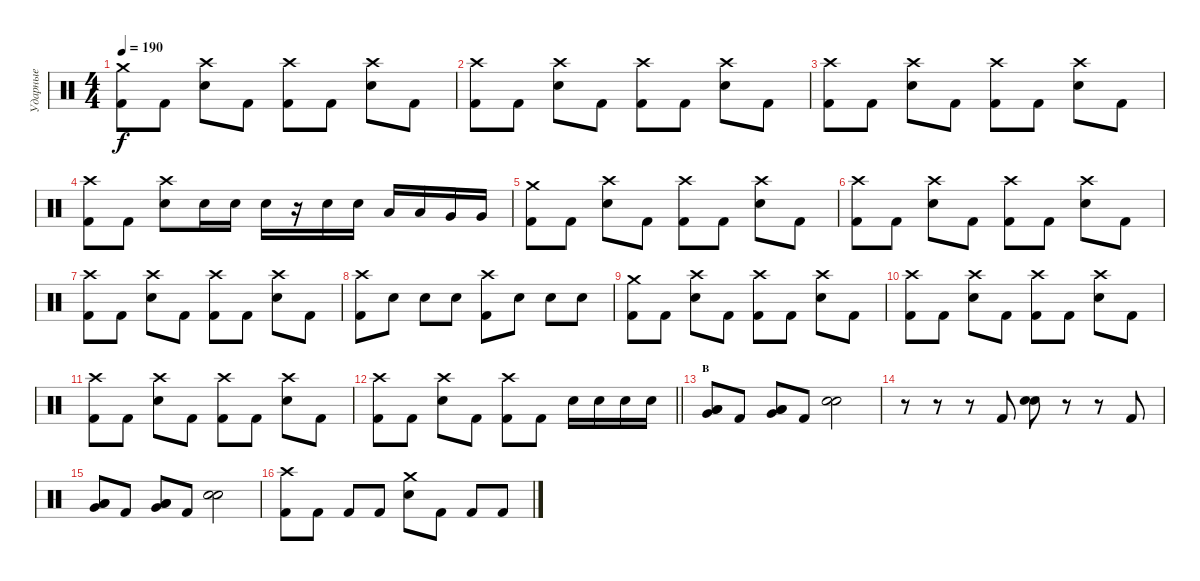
\track ("Ударные" "Ударные") {instrument percussion}
\staff {score}
\articulation defaults
\ts (4 4)
\tempo 190
\clef neutral
\ks c
("Crash medium (hit)" "Kick (hit) 2").8{dy f} "Kick (hit) 2".8 ("Crash high (hit)" "Snare (hit) 2").8 "Kick (hit) 2".8 ("Crash high (hit)" "Kick (hit) 2").8 "Kick (hit) 2".8 ("Crash high (hit)" "Snare (hit) 2").8 "Kick (hit) 2".8 |
("Crash high (hit)" "Kick (hit) 2").8 "Kick (hit) 2".8 ("Crash high (hit)" "Snare (hit) 2").8 "Kick (hit) 2".8 ("Crash high (hit)" "Kick (hit) 2").8 "Kick (hit) 2".8 ("Crash high (hit)" "Snare (hit) 2").8 "Kick (hit) 2".8 |
("Crash high (hit)" "Kick (hit) 2").8 "Kick (hit) 2".8 ("Crash high (hit)" "Snare (hit) 2").8 "Kick (hit) 2".8 ("Crash high (hit)" "Kick (hit) 2").8 "Kick (hit) 2".8 ("Crash high (hit)" "Snare (hit) 2").8 "Kick (hit) 2".8 |
("Crash high (hit)" "Kick (hit) 2").8 "Kick (hit) 2".8 ("Crash high (hit)" "Snare (hit) 2").8 "Snare (hit) 2".16 "Snare (hit) 2".16 "Snare (hit) 2".16 r.16 "Snare (hit) 2".16 "Snare (hit) 2".16 "Low Tom (hit)".16 "Low Tom (hit)".16 "Very Low Tom (hit)".16 "Very Low Tom (hit)".16 |
("Crash medium (hit)" "Kick (hit) 2").8 "Kick (hit) 2".8 ("Crash high (hit)" "Snare (hit) 2").8 "Kick (hit) 2".8 ("Crash high (hit)" "Kick (hit) 2").8 "Kick (hit) 2".8 ("Crash high (hit)" "Snare (hit) 2").8 "Kick (hit) 2".8 |
("Crash high (hit)" "Kick (hit) 2").8 "Kick (hit) 2".8 ("Crash high (hit)" "Snare (hit) 2").8 "Kick (hit) 2".8 ("Crash high (hit)" "Kick (hit) 2").8 "Kick (hit) 2".8 ("Crash high (hit)" "Snare (hit) 2").8 "Kick (hit) 2".8 |
("Crash high (hit)" "Kick (hit) 2").8 "Kick (hit) 2".8 ("Crash high (hit)" "Snare (hit) 2").8 "Kick (hit) 2".8 ("Crash high (hit)" "Kick (hit) 2").8 "Kick (hit) 2".8 ("Crash high (hit)" "Snare (hit) 2").8 "Kick (hit) 2".8 |
("Crash high (hit)" "Kick (hit) 2").8 "Snare (hit) 2".8 "Snare (hit) 2".8 "Snare (hit) 2".8 ("Crash high (hit)" "Kick (hit) 2").8 "Snare (hit) 2".8 "Snare (hit) 2".8 "Snare (hit) 2".8 |
("Crash medium (hit)" "Kick (hit) 2").8 "Kick (hit) 2".8 ("Crash high (hit)" "Snare (hit) 2").8 "Kick (hit) 2".8 ("Crash high (hit)" "Kick (hit) 2").8 "Kick (hit) 2".8 ("Crash high (hit)" "Snare (hit) 2").8 "Kick (hit) 2".8 |
("Crash high (hit)" "Kick (hit) 2").8 "Kick (hit) 2".8 ("Crash high (hit)" "Snare (hit) 2").8 "Kick (hit) 2".8 ("Crash high (hit)" "Kick (hit) 2").8 "Kick (hit) 2".8 ("Crash high (hit)" "Snare (hit) 2").8 "Kick (hit) 2".8 |
("Crash high (hit)" "Kick (hit) 2").8 "Kick (hit) 2".8 ("Crash high (hit)" "Snare (hit) 2").8 "Kick (hit) 2".8 ("Crash high (hit)" "Kick (hit) 2").8 "Kick (hit) 2".8 ("Crash high (hit)" "Snare (hit) 2").8 "Kick (hit) 2".8 |
\barLineRight lightlight
("Crash high (hit)" "Kick (hit) 2").8 "Kick (hit) 2".8 ("Crash high (hit)" "Snare (hit) 2").8 "Kick (hit) 2".8 ("Crash high (hit)" "Kick (hit) 2").8 "Kick (hit) 2".8 "Snare (hit) 2".16 "Snare (hit) 2".16 "Snare (hit) 2".16 "Snare (hit) 2".16 |
\section ("" "в")
("Low Tom (hit)" "Low Floor Tom (hit)" "Very Low Tom (hit)").8 "Kick (hit) 2".8 ("Low Tom (hit)" "Low Floor Tom (hit)" "Very Low Tom (hit)").8 "Kick (hit) 2".8 ("Electric Snare (hit)" "Snare (hit) 2").2 |
r.8 r.8 r.8 "Kick (hit) 2".8 ("Electric Snare (hit)" "Snare (hit) 2").8 r.8 r.8 "Kick (hit) 2".8 |
("Low Tom (hit)" "Low Floor Tom (hit)" "Very Low Tom (hit)").8 "Kick (hit) 2".8 ("Low Tom (hit)" "Low Floor Tom (hit)" "Very Low Tom (hit)").8 "Kick (hit) 2".8 ("Electric Snare (hit)" "Snare (hit) 2").2 |
("Crash high (hit)" "Kick (hit) 2").8 "Kick (hit) 2".8 "Kick (hit) 2".8 "Kick (hit) 2".8 ("Crash medium (hit)" "Snare (hit) 2").8 "Kick (hit) 2".8 "Kick (hit) 2".8 "Kick (hit) 2".8
